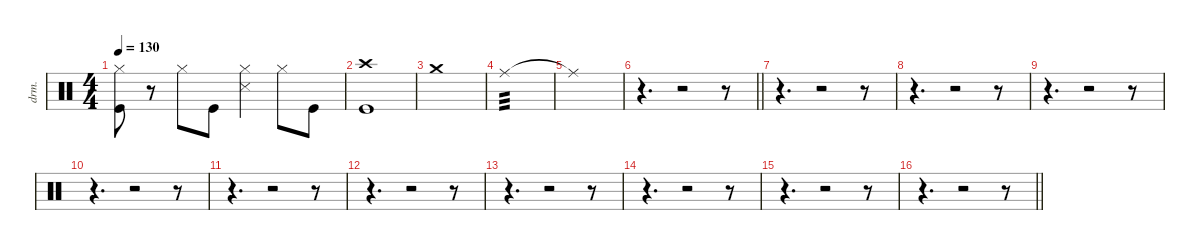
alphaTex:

\defaultSystemsLayout 4
\hideDynamics
\bracketExtendMode nobrackets
\otherSystemsTrackNameOrientation horizontal
\track ("Manouche" "drm.") {instrument percussion}
\staff {score}
\articulation defaults
\ts (4 4)
\tempo 130
\clef neutral
\ks c
("Hi-Hat (closed)" "Kick (hit)").8{dy f beam Down} r.8{beam Down} "Hi-Hat (closed)".8{beam Down} "Kick (hit)".8{beam Down} ("Hi-Hat (closed)" "Snare (side stick) 3").4{beam Down} "Hi-Hat (closed)".8{beam Down} "Kick (hit)".8{beam Down} |
("Crash high (hit)" "Kick (hit)").1{beam Down} |
"Crash medium (hit)".1{dy mf beam Down} |
"Ride (middle)".1{tp 3 dy mp beam Down} |
"Ride (middle)"{t}.1{dy f beam Down} |
\barLineRight lightlight
r.4{d beam Down} r.2{beam Down} r.8{beam Down} |
r.4{d beam Down} r.2{beam Down} r.8{beam Down} |
r.4{d beam Down} r.2{beam Down} r.8{beam Down} |
r.4{d beam Down} r.2{beam Down} r.8{beam Down} |
r.4{d beam Down} r.2{beam Down} r.8{beam Down} |
r.4{d beam Down} r.2{beam Down} r.8{beam Down} |
r.4{d beam Down} r.2{beam Down} r.8{beam Down} |
r.4{d beam Down} r.2{beam Down} r.8{beam Down} |
r.4{d beam Down} r.2{beam Down} r.8{beam Down} |
r.4{d beam Down} r.2{beam Down} r.8{beam Down} |
\barLineRight lightlight
r.4{d beam Down} r.2{beam Down} r.8{beam Down}
